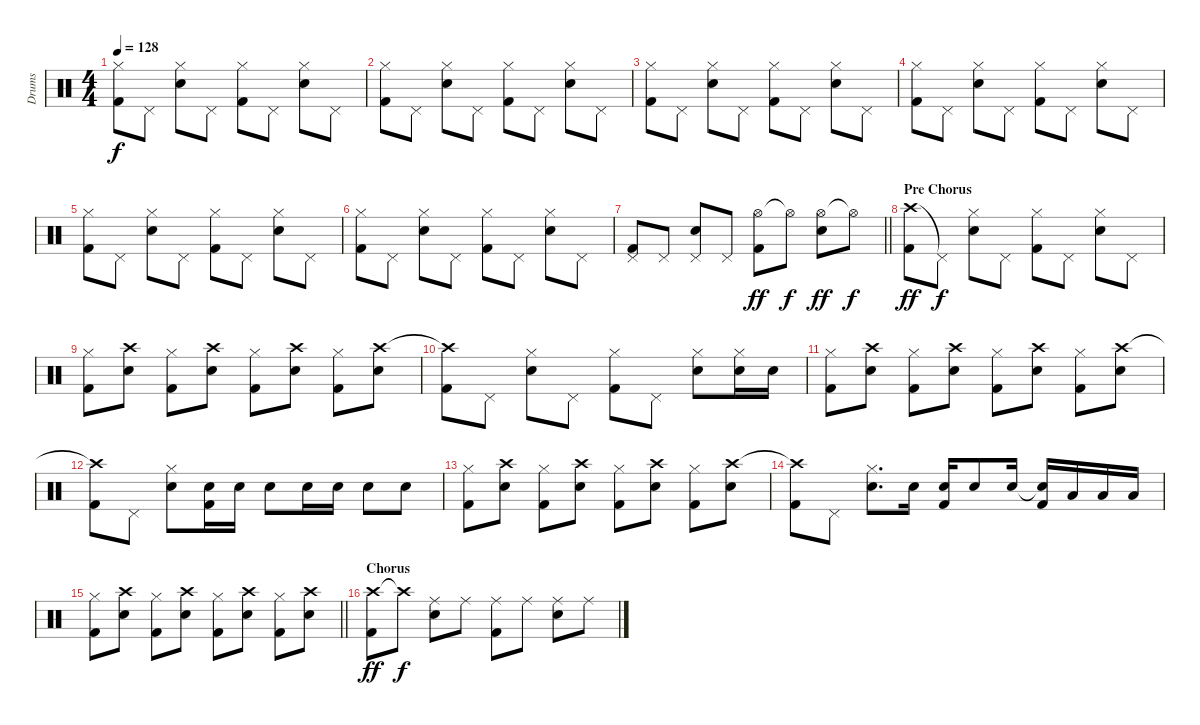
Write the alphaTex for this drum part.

\track ("Drums" "Drums") {instrument percussion}
\staff {score}
\articulation defaults
\ts (4 4)
\tempo 128
\clef neutral
\ks c
("Hi-Hat (closed)" "Kick (hit) 2").8{dy f} "Pedal Hi-Hat (hit)".8 ("Hi-Hat (closed)" "Snare (hit) 2").8 "Pedal Hi-Hat (hit)".8 ("Hi-Hat (closed)" "Kick (hit) 2").8 "Pedal Hi-Hat (hit)".8 ("Hi-Hat (closed)" "Snare (hit) 2").8 "Pedal Hi-Hat (hit)".8 |
("Hi-Hat (closed)" "Kick (hit) 2").8 "Pedal Hi-Hat (hit)".8 ("Hi-Hat (closed)" "Snare (hit) 2").8 "Pedal Hi-Hat (hit)".8 ("Hi-Hat (closed)" "Kick (hit) 2").8 "Pedal Hi-Hat (hit)".8 ("Hi-Hat (closed)" "Snare (hit) 2").8 "Pedal Hi-Hat (hit)".8 |
("Hi-Hat (closed)" "Kick (hit) 2").8 "Pedal Hi-Hat (hit)".8 ("Hi-Hat (closed)" "Snare (hit) 2").8 "Pedal Hi-Hat (hit)".8 ("Hi-Hat (closed)" "Kick (hit) 2").8 "Pedal Hi-Hat (hit)".8 ("Hi-Hat (closed)" "Snare (hit) 2").8 "Pedal Hi-Hat (hit)".8 |
("Hi-Hat (closed)" "Kick (hit) 2").8 "Pedal Hi-Hat (hit)".8 ("Hi-Hat (closed)" "Snare (hit) 2").8 "Pedal Hi-Hat (hit)".8 ("Hi-Hat (closed)" "Kick (hit) 2").8 "Pedal Hi-Hat (hit)".8 ("Hi-Hat (closed)" "Snare (hit) 2").8 "Pedal Hi-Hat (hit)".8 |
("Hi-Hat (closed)" "Kick (hit) 2").8 "Pedal Hi-Hat (hit)".8 ("Hi-Hat (closed)" "Snare (hit) 2").8 "Pedal Hi-Hat (hit)".8 ("Hi-Hat (closed)" "Kick (hit) 2").8 "Pedal Hi-Hat (hit)".8 ("Hi-Hat (closed)" "Snare (hit) 2").8 "Pedal Hi-Hat (hit)".8 |
("Hi-Hat (closed)" "Kick (hit) 2").8 "Pedal Hi-Hat (hit)".8 ("Hi-Hat (closed)" "Snare (hit) 2").8 "Pedal Hi-Hat (hit)".8 ("Hi-Hat (closed)" "Kick (hit) 2").8 "Pedal Hi-Hat (hit)".8 ("Hi-Hat (closed)" "Snare (hit) 2").8 "Pedal Hi-Hat (hit)".8 |
\barLineRight lightlight
("Pedal Hi-Hat (hit)" "Kick (hit) 2").8 "Pedal Hi-Hat (hit)".8 ("Pedal Hi-Hat (hit)" "Snare (hit) 2").8 "Pedal Hi-Hat (hit)".8 ("Hi-Hat (open)" "Kick (hit) 2").8{dy ff} "Hi-Hat (open)"{t}.8{dy f} ("Hi-Hat (open)" "Snare (hit) 2").8{dy ff} "Hi-Hat (open)"{t}.8{dy f} |
\section ("" "Pre Chorus")
("Crash high (hit)" "Kick (hit) 2").8{dy ff} "Pedal Hi-Hat (hit)"{t}.8{dy f} ("Hi-Hat (closed)" "Snare (hit) 2").8 "Pedal Hi-Hat (hit)".8 ("Hi-Hat (closed)" "Kick (hit) 2").8 "Pedal Hi-Hat (hit)".8 ("Hi-Hat (closed)" "Snare (hit) 2").8 "Pedal Hi-Hat (hit)".8 |
("Hi-Hat (closed)" "Kick (hit) 2").8 ("Crash high (hit)" "Snare (hit) 2").8 ("Hi-Hat (closed)" "Kick (hit) 2").8 ("Crash high (hit)" "Snare (hit) 2").8 ("Hi-Hat (closed)" "Kick (hit) 2").8 ("Crash high (hit)" "Snare (hit) 2").8 ("Hi-Hat (closed)" "Kick (hit) 2").8 ("Crash high (hit)" "Snare (hit) 2").8 |
("Crash high (hit)"{t} "Kick (hit) 2").8 "Pedal Hi-Hat (hit)".8 ("Hi-Hat (closed)" "Snare (hit) 2").8 "Pedal Hi-Hat (hit)".8 ("Hi-Hat (closed)" "Kick (hit) 2").8 "Pedal Hi-Hat (hit)".8 ("Hi-Hat (closed)" "Snare (hit) 2").8 ("Hi-Hat (closed)" "Snare (hit) 2").16 "Snare (hit) 2".16 |
("Hi-Hat (closed)" "Kick (hit) 2").8 ("Crash high (hit)" "Snare (hit) 2").8 ("Hi-Hat (closed)" "Kick (hit) 2").8 ("Crash high (hit)" "Snare (hit) 2").8 ("Hi-Hat (closed)" "Kick (hit) 2").8 ("Crash high (hit)" "Snare (hit) 2").8 ("Hi-Hat (closed)" "Kick (hit) 2").8 ("Crash high (hit)" "Snare (hit) 2").8 |
("Crash high (hit)"{t} "Kick (hit) 2").8 "Pedal Hi-Hat (hit)".8 ("Hi-Hat (closed)" "Snare (hit) 2").8 ("Snare (hit) 2" "Kick (hit) 2").16 "Snare (hit) 2".16 "Snare (hit) 2".8 "Snare (hit) 2".16 "Snare (hit) 2".16 "Snare (hit) 2".8 "Snare (hit) 2".8 |
("Hi-Hat (closed)" "Kick (hit) 2").8 ("Crash high (hit)" "Snare (hit) 2").8 ("Hi-Hat (closed)" "Kick (hit) 2").8 ("Crash high (hit)" "Snare (hit) 2").8 ("Hi-Hat (closed)" "Kick (hit) 2").8 ("Crash high (hit)" "Snare (hit) 2").8 ("Hi-Hat (closed)" "Kick (hit) 2").8 ("Crash high (hit)" "Snare (hit) 2").8 |
("Crash high (hit)"{t} "Kick (hit) 2").8 "Pedal Hi-Hat (hit)".8 ("Hi-Hat (closed)" "Snare (hit) 2").8{d} "Snare (hit) 2".16 ("Snare (hit) 2" "Kick (hit) 2").16 "Snare (hit) 2".8 "Snare (hit) 2".16 ("Snare (hit)"{t} "Kick (hit) 2").16 "Low Tom (hit)".16 "Low Tom (hit)".16 "Low Tom (hit)".16 |
\barLineRight lightlight
("Hi-Hat (closed)" "Kick (hit) 2").8 ("Crash high (hit)" "Snare (hit) 2").8 ("Hi-Hat (closed)" "Kick (hit) 2").8 ("Crash high (hit)" "Snare (hit) 2").8 ("Hi-Hat (closed)" "Kick (hit) 2").8 ("Crash high (hit)" "Snare (hit) 2").8 ("Hi-Hat (closed)" "Kick (hit) 2").8 ("Crash high (hit)" "Snare (hit) 2").8 |
\section ("" "Chorus")
("Crash high (hit)" "Kick (hit) 2").8{dy ff} "Crash high (hit)"{t}.8{dy f} ("Ride (middle)" "Snare (hit) 2").8 "Ride (middle)".8 ("Ride (middle)" "Kick (hit) 2").8 "Ride (middle)".8 ("Ride (middle)" "Snare (hit) 2").8 "Ride (middle)".8
